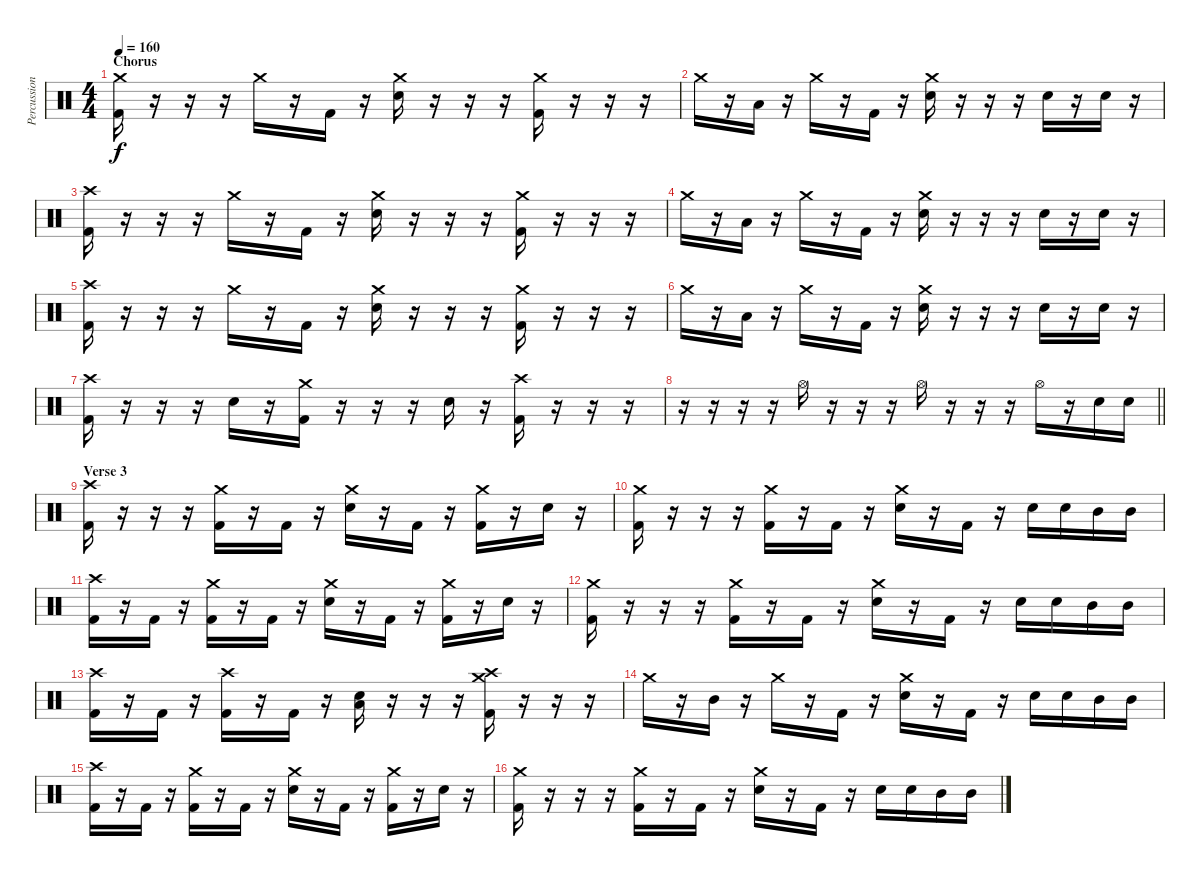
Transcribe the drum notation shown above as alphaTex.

\track ("Percussion" "Percussion") {instrument percussion}
\staff {score}
\articulation defaults
\ts (4 4)
\section ("" "Chorus")
\tempo 160
\clef neutral
\ks c
("Crash medium (hit)" "Kick (hit) 2").16{dy f} r.16 r.16 r.16 "Crash medium (hit)".16 r.16 "Kick (hit) 2".16 r.16 ("Crash medium (hit)" "Snare (hit) 2").16 r.16 r.16 r.16 ("Crash medium (hit)" "Kick (hit) 2").16 r.16 r.16 r.16 |
"Crash medium (hit)".16 r.16 "Low Tom (hit)".16 r.16 "Crash medium (hit)".16 r.16 "Kick (hit) 2".16 r.16 ("Crash medium (hit)" "Snare (hit) 2").16 r.16 r.16 r.16 "Snare (hit) 2".16 r.16 "Snare (hit) 2".16 r.16 |
("Crash high (hit)" "Kick (hit) 2").16 r.16 r.16 r.16 "Crash medium (hit)".16 r.16 "Kick (hit) 2".16 r.16 ("Crash medium (hit)" "Snare (hit) 2").16 r.16 r.16 r.16 ("Crash medium (hit)" "Kick (hit) 2").16 r.16 r.16 r.16 |
"Crash medium (hit)".16 r.16 "Low Tom (hit)".16 r.16 "Crash medium (hit)".16 r.16 "Kick (hit) 2".16 r.16 ("Crash medium (hit)" "Snare (hit) 2").16 r.16 r.16 r.16 "Snare (hit) 2".16 r.16 "Snare (hit) 2".16 r.16 |
("Crash high (hit)" "Kick (hit) 2").16 r.16 r.16 r.16 "Crash medium (hit)".16 r.16 "Kick (hit) 2".16 r.16 ("Crash medium (hit)" "Snare (hit) 2").16 r.16 r.16 r.16 ("Crash medium (hit)" "Kick (hit) 2").16 r.16 r.16 r.16 |
"Crash medium (hit)".16 r.16 "Low Tom (hit)".16 r.16 "Crash medium (hit)".16 r.16 "Kick (hit) 2".16 r.16 ("Crash medium (hit)" "Snare (hit) 2").16 r.16 r.16 r.16 "Snare (hit) 2".16 r.16 "Snare (hit) 2".16 r.16 |
("Crash high (hit)" "Kick (hit) 2").16 r.16 r.16 r.16 "Snare (hit) 2".16 r.16 ("Crash medium (hit)" "Kick (hit) 2").16 r.16 r.16 r.16 "Snare (hit) 2".16 r.16 ("Crash high (hit)" "Kick (hit) 2").16 r.16 r.16 r.16 |
\barLineRight lightlight
r.16 r.16 r.16 r.16 "Hi-Hat (open)".16 r.16 r.16 r.16 "Hi-Hat (open)".16 r.16 r.16 r.16 "Hi-Hat (open)".16 r.16 "Snare (hit) 2".16 "Snare (hit) 2".16 |
\section ("" "Verse 3")
("Crash high (hit)" "Kick (hit) 2").16 r.16 r.16 r.16 ("Crash medium (hit)" "Kick (hit) 2").16 r.16 "Kick (hit) 2".16 r.16 ("Crash medium (hit)" "Snare (hit) 2").16 r.16 "Kick (hit) 2".16 r.16 ("Crash medium (hit)" "Kick (hit) 2").16 r.16 "Snare (hit) 2".16 r.16 |
("Crash medium (hit)" "Kick (hit) 2").16 r.16 r.16 r.16 ("Crash medium (hit)" "Kick (hit) 2").16 r.16 "Kick (hit) 2".16 r.16 ("Crash medium (hit)" "Snare (hit) 2").16 r.16 "Kick (hit) 2".16 r.16 "Snare (hit) 2".16 "Snare (hit) 2".16 "Mid Tom (hit)".16 "Mid Tom (hit)".16 |
("Crash high (hit)" "Kick (hit) 2").16 r.16 "Kick (hit) 2".16 r.16 ("Crash medium (hit)" "Kick (hit) 2").16 r.16 "Kick (hit) 2".16 r.16 ("Crash medium (hit)" "Snare (hit) 2").16 r.16 "Kick (hit) 2".16 r.16 ("Crash medium (hit)" "Kick (hit) 2").16 r.16 "Snare (hit) 2".16 r.16 |
("Crash medium (hit)" "Kick (hit) 2").16 r.16 r.16 r.16 ("Crash medium (hit)" "Kick (hit) 2").16 r.16 "Kick (hit) 2".16 r.16 ("Crash medium (hit)" "Snare (hit) 2").16 r.16 "Kick (hit) 2".16 r.16 "Snare (hit) 2".16 "Snare (hit) 2".16 "Mid Tom (hit)".16 "Mid Tom (hit)".16 |
("Crash high (hit)" "Kick (hit) 2").16 r.16 "Kick (hit) 2".16 r.16 ("Crash high (hit)" "Kick (hit) 2").16 r.16 "Kick (hit) 2".16 r.16 ("Low Floor Tom (hit)" "Snare (hit) 2").16 r.16 r.16 r.16 ("Crash high (hit)" "Crash medium (hit)" "Kick (hit) 2").16 r.16 r.16 r.16 |
"Crash medium (hit)".16 r.16 "Mid Tom (hit)".16 r.16 "Crash medium (hit)".16 r.16 "Kick (hit) 2".16 r.16 ("Crash medium (hit)" "Snare (hit) 2").16 r.16 "Kick (hit) 2".16 r.16 "Snare (hit) 2".16 "Snare (hit) 2".16 "Mid Tom (hit)".16 "Mid Tom (hit)".16 |
("Crash high (hit)" "Kick (hit) 2").16 r.16 "Kick (hit) 2".16 r.16 ("Crash medium (hit)" "Kick (hit) 2").16 r.16 "Kick (hit) 2".16 r.16 ("Crash medium (hit)" "Snare (hit) 2").16 r.16 "Kick (hit) 2".16 r.16 ("Crash medium (hit)" "Kick (hit) 2").16 r.16 "Snare (hit) 2".16 r.16 |
("Crash medium (hit)" "Kick (hit) 2").16 r.16 r.16 r.16 ("Crash medium (hit)" "Kick (hit) 2").16 r.16 "Kick (hit) 2".16 r.16 ("Crash medium (hit)" "Snare (hit) 2").16 r.16 "Kick (hit) 2".16 r.16 "Snare (hit) 2".16 "Snare (hit) 2".16 "Mid Tom (hit)".16 "Mid Tom (hit)".16
